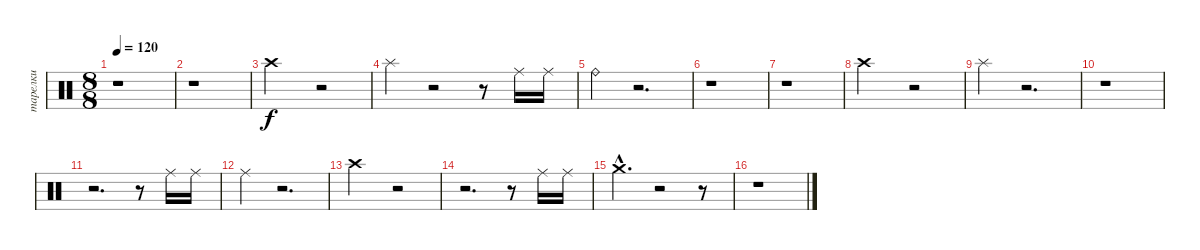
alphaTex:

\track ("тарелки" "тарелки") {instrument percussion}
\staff {score}
\articulation defaults
\ts (8 8)
\tempo 120
\clef neutral
\ks c
r.1{dy f} |
r.1 |
"Crash high (hit)".2 r.2 |
"Splash (hit)".4 r.2 r.8 "Ride (middle)".16 "Ride (middle)".16 |
"Ride (bell)".4 r.2{d} |
r.1 |
r.1 |
"Crash high (hit)".2 r.2 |
"Splash (hit)".4 r.2{d} |
r.1 |
r.2{d} r.8 "Ride (middle)".16 "Ride (middle)".16 |
"Ride (middle)".4 r.2{d} |
"Crash high (hit)".2 r.2 |
r.2{d} r.8 "Ride (middle)".16 "Ride (middle)".16 |
"Crash medium (hit)"{hac}.4{d} r.2 r.8 |
r.1
